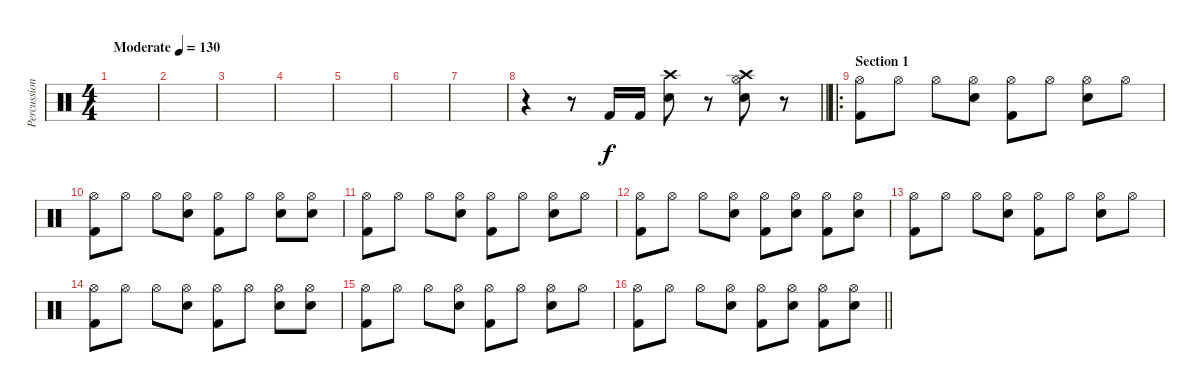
\track ("Percussions" "Percussion") {instrument percussion}
\staff {score}
\articulation defaults
\ts (4 4)
\tempo (130 "Moderate")
\clef neutral
\ks c
|
|
|
|
|
|
|
\barLineRight lightlight
r.4 r.8 "Kick (hit) 2".16 "Kick (hit) 2".16 ("Crash high (hit)" "Electric Snare (hit)").8 r.8 ("Crash high (hit)" "Hi-Hat (open)" "Electric Snare (hit)").8 r.8 |
\ro
\section ("" "Section 1")
("Hi-Hat (open)" "Kick (hit) 2").8 "Hi-Hat (open)".8 "Hi-Hat (open)".8 ("Hi-Hat (open)" "Electric Snare (hit)").8 ("Hi-Hat (open)" "Kick (hit) 2").8 "Hi-Hat (open)".8 ("Hi-Hat (open)" "Electric Snare (hit)").8 "Hi-Hat (open)".8 |
("Hi-Hat (open)" "Kick (hit) 2").8 "Hi-Hat (open)".8 "Hi-Hat (open)".8 ("Hi-Hat (open)" "Electric Snare (hit)").8 ("Hi-Hat (open)" "Kick (hit) 2").8 "Hi-Hat (open)".8 ("Hi-Hat (open)" "Electric Snare (hit)").8 ("Hi-Hat (open)" "Electric Snare (hit)").8 |
("Hi-Hat (open)" "Kick (hit) 2").8 "Hi-Hat (open)".8 "Hi-Hat (open)".8 ("Hi-Hat (open)" "Electric Snare (hit)").8 ("Hi-Hat (open)" "Kick (hit) 2").8 "Hi-Hat (open)".8 ("Hi-Hat (open)" "Electric Snare (hit)").8 "Hi-Hat (open)".8 |
("Hi-Hat (open)" "Kick (hit) 2").8 "Hi-Hat (open)".8 "Hi-Hat (open)".8 ("Hi-Hat (open)" "Electric Snare (hit)").8 ("Hi-Hat (open)" "Kick (hit) 2").8 ("Hi-Hat (open)" "Electric Snare (hit)").8 ("Hi-Hat (open)" "Kick (hit) 2").8 ("Hi-Hat (open)" "Electric Snare (hit)").8 |
("Hi-Hat (open)" "Kick (hit) 2").8 "Hi-Hat (open)".8 "Hi-Hat (open)".8 ("Hi-Hat (open)" "Electric Snare (hit)").8 ("Hi-Hat (open)" "Kick (hit) 2").8 "Hi-Hat (open)".8 ("Hi-Hat (open)" "Electric Snare (hit)").8 "Hi-Hat (open)".8 |
("Hi-Hat (open)" "Kick (hit) 2").8 "Hi-Hat (open)".8 "Hi-Hat (open)".8 ("Hi-Hat (open)" "Electric Snare (hit)").8 ("Hi-Hat (open)" "Kick (hit) 2").8 "Hi-Hat (open)".8 ("Hi-Hat (open)" "Electric Snare (hit)").8 ("Hi-Hat (open)" "Electric Snare (hit)").8 |
("Hi-Hat (open)" "Kick (hit) 2").8 "Hi-Hat (open)".8 "Hi-Hat (open)".8 ("Hi-Hat (open)" "Electric Snare (hit)").8 ("Hi-Hat (open)" "Kick (hit) 2").8 "Hi-Hat (open)".8 ("Hi-Hat (open)" "Electric Snare (hit)").8 "Hi-Hat (open)".8 |
\barLineRight lightlight
("Hi-Hat (open)" "Kick (hit) 2").8 "Hi-Hat (open)".8 "Hi-Hat (open)".8 ("Hi-Hat (open)" "Electric Snare (hit)").8 ("Hi-Hat (open)" "Kick (hit) 2").8 ("Hi-Hat (open)" "Electric Snare (hit)").8 ("Hi-Hat (open)" "Kick (hit) 2").8 ("Hi-Hat (open)" "Electric Snare (hit)").8
